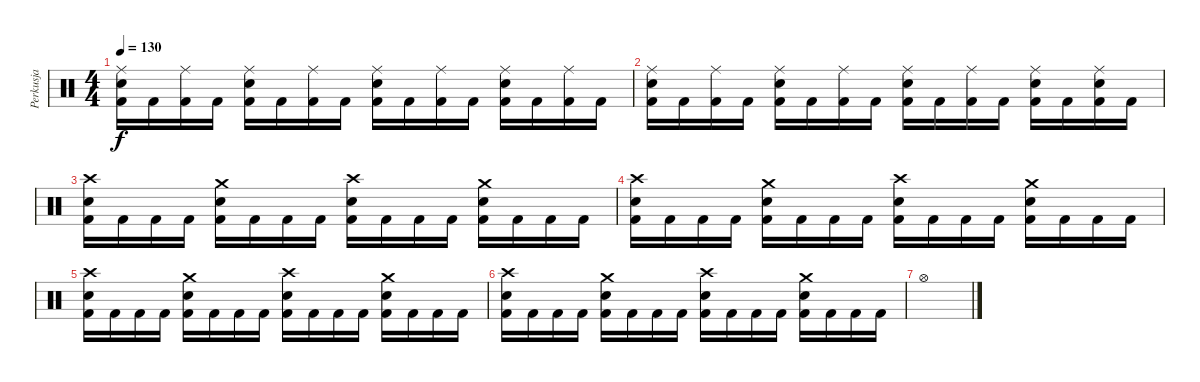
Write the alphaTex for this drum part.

\track ("Perkusja" "Perkusja") {instrument percussion}
\staff {score}
\articulation defaults
\ts (4 4)
\tempo 130
\clef neutral
\ks c
("Ride (middle)" "Snare (hit) 2" "Kick (hit) 2").16{dy f} "Kick (hit) 2".16 ("Ride (middle)" "Kick (hit) 2").16 "Kick (hit) 2".16 ("Ride (middle)" "Snare (hit) 2" "Kick (hit) 2").16 "Kick (hit) 2".16 ("Ride (middle)" "Kick (hit) 2").16 "Kick (hit) 2".16 ("Ride (middle)" "Snare (hit) 2" "Kick (hit) 2").16 "Kick (hit) 2".16 ("Ride (middle)" "Kick (hit) 2").16 "Kick (hit) 2".16 ("Ride (middle)" "Snare (hit) 2" "Kick (hit) 2").16 "Kick (hit) 2".16 ("Ride (middle)" "Kick (hit) 2").16 "Kick (hit) 2".16 |
("Ride (middle)" "Snare (hit) 2" "Kick (hit) 2").16 "Kick (hit) 2".16 ("Ride (middle)" "Kick (hit) 2").16 "Kick (hit) 2".16 ("Ride (middle)" "Snare (hit) 2" "Kick (hit) 2").16 "Kick (hit) 2".16 ("Ride (middle)" "Kick (hit) 2").16 "Kick (hit) 2".16 ("Ride (middle)" "Snare (hit) 2" "Kick (hit) 2").16 "Kick (hit) 2".16 ("Ride (middle)" "Kick (hit) 2").16 "Kick (hit) 2".16 ("Ride (middle)" "Snare (hit) 2" "Kick (hit) 2").16 "Kick (hit) 2".16 ("Ride (middle)" "Snare (hit) 2" "Kick (hit) 2").16 "Kick (hit) 2".16 |
("Crash high (hit)" "Snare (hit) 2" "Kick (hit) 2").16 "Kick (hit) 2".16 "Kick (hit) 2".16 "Kick (hit) 2".16 ("Crash medium (hit)" "Snare (hit) 2" "Kick (hit) 2").16 "Kick (hit) 2".16 "Kick (hit) 2".16 "Kick (hit) 2".16 ("Crash high (hit)" "Snare (hit) 2" "Kick (hit) 2").16 "Kick (hit) 2".16 "Kick (hit) 2".16 "Kick (hit) 2".16 ("Crash medium (hit)" "Snare (hit) 2" "Kick (hit) 2").16 "Kick (hit) 2".16 "Kick (hit) 2".16 "Kick (hit) 2".16 |
("Crash high (hit)" "Snare (hit) 2" "Kick (hit) 2").16 "Kick (hit) 2".16 "Kick (hit) 2".16 "Kick (hit) 2".16 ("Crash medium (hit)" "Snare (hit) 2" "Kick (hit) 2").16 "Kick (hit) 2".16 "Kick (hit) 2".16 "Kick (hit) 2".16 ("Crash high (hit)" "Snare (hit) 2" "Kick (hit) 2").16 "Kick (hit) 2".16 "Kick (hit) 2".16 "Kick (hit) 2".16 ("Crash medium (hit)" "Snare (hit) 2" "Kick (hit) 2").16 "Kick (hit) 2".16 "Kick (hit) 2".16 "Kick (hit) 2".16 |
("Crash high (hit)" "Snare (hit) 2" "Kick (hit) 2").16 "Kick (hit) 2".16 "Kick (hit) 2".16 "Kick (hit) 2".16 ("Crash medium (hit)" "Snare (hit) 2" "Kick (hit) 2").16 "Kick (hit) 2".16 "Kick (hit) 2".16 "Kick (hit) 2".16 ("Crash high (hit)" "Snare (hit) 2" "Kick (hit) 2").16 "Kick (hit) 2".16 "Kick (hit) 2".16 "Kick (hit) 2".16 ("Crash medium (hit)" "Snare (hit) 2" "Kick (hit) 2").16 "Kick (hit) 2".16 "Kick (hit) 2".16 "Kick (hit) 2".16 |
("Crash high (hit)" "Snare (hit) 2" "Kick (hit) 2").16 "Kick (hit) 2".16 "Kick (hit) 2".16 "Kick (hit) 2".16 ("Crash medium (hit)" "Snare (hit) 2" "Kick (hit) 2").16 "Kick (hit) 2".16 "Kick (hit) 2".16 "Kick (hit) 2".16 ("Crash high (hit)" "Snare (hit) 2" "Kick (hit) 2").16 "Kick (hit) 2".16 "Kick (hit) 2".16 "Kick (hit) 2".16 ("Crash medium (hit)" "Snare (hit) 2" "Kick (hit) 2").16 "Kick (hit) 2".16 "Kick (hit) 2".16 "Kick (hit) 2".16 |
"Hi-Hat (open)".1
